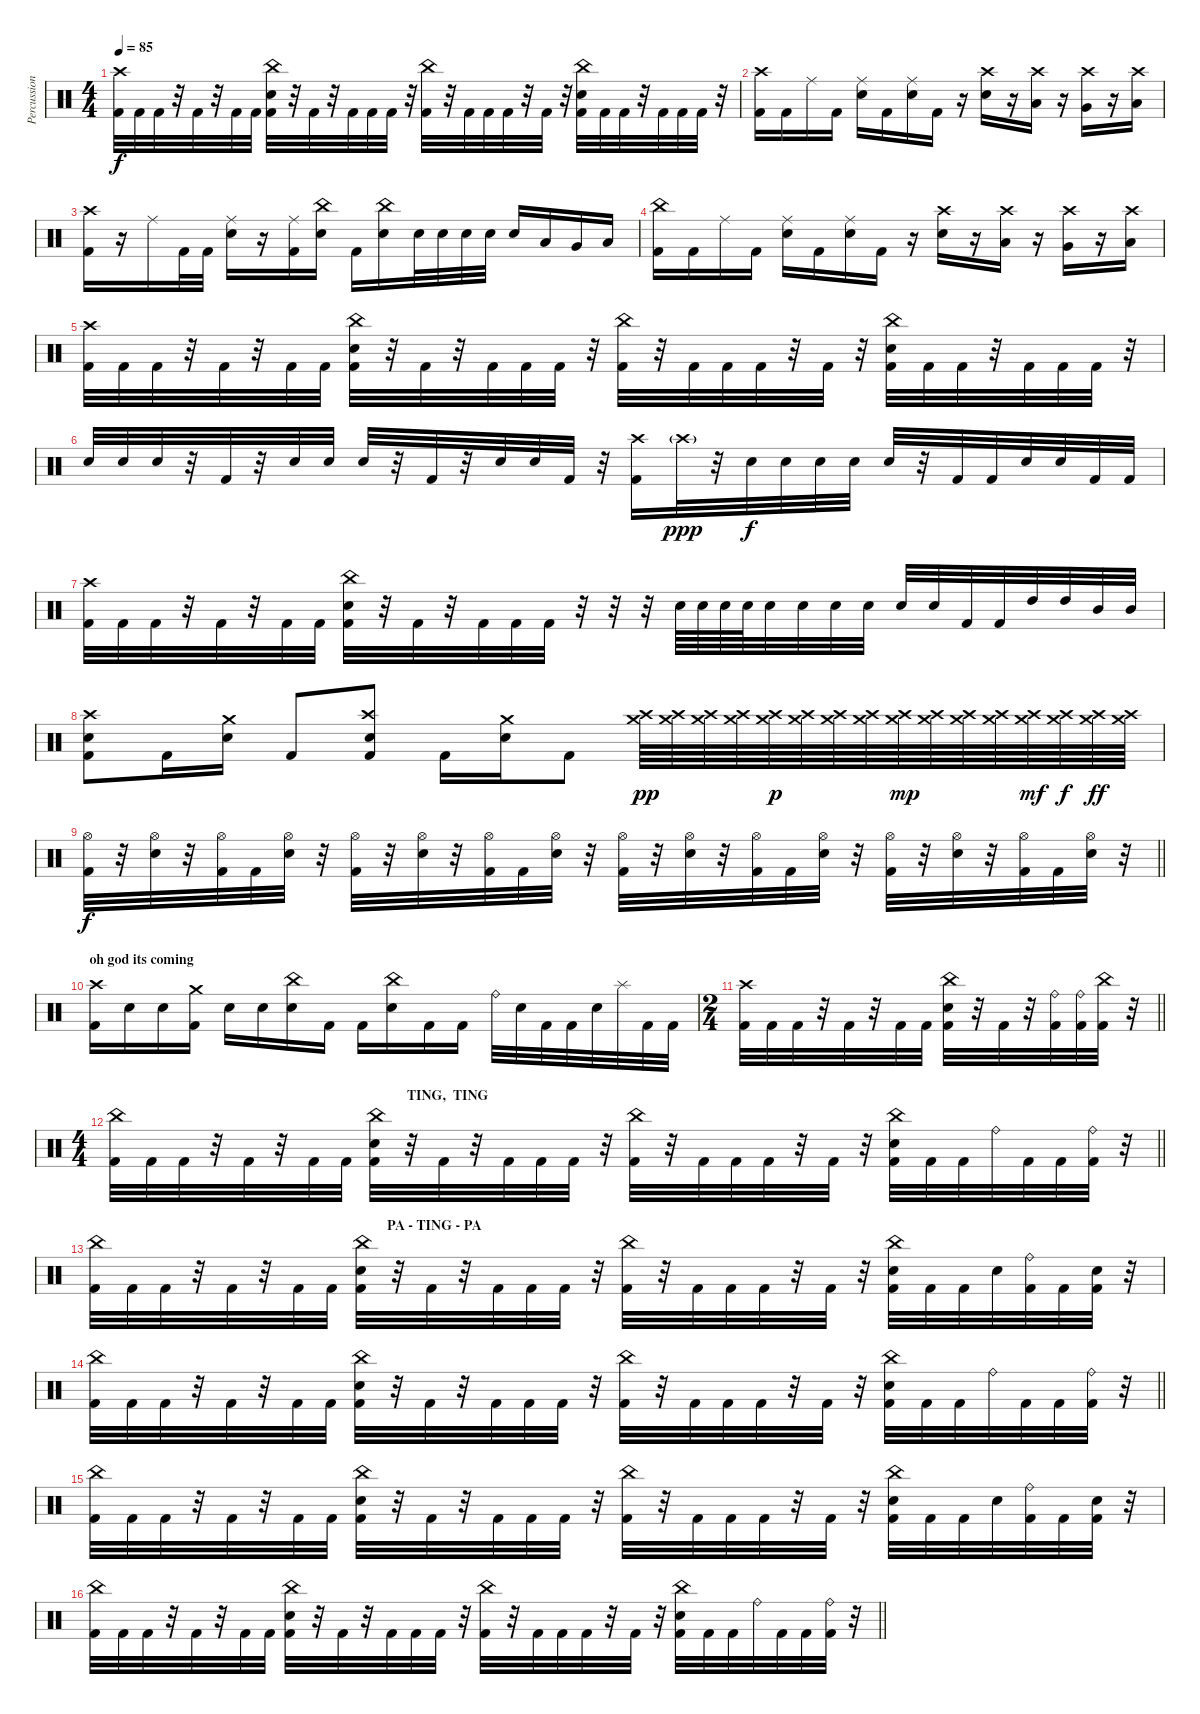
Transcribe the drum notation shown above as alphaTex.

\track ("Percussion" "Percussion") {instrument percussion}
\staff {score}
\articulation defaults
\ts (4 4)
\tempo 85
\clef neutral
\ks c
("Kick (hit) 2" "Crash high (hit)").32{dy f} "Kick (hit) 2".32 "Kick (hit) 2".32 r.32 "Kick (hit) 2".32 r.32 "Kick (hit) 2".32 "Kick (hit) 2".32 ("Kick (hit) 2" "Snare (hit) 2" "China (hit)").32 r.32 "Kick (hit) 2".32 r.32 "Kick (hit) 2".32 "Kick (hit) 2".32 "Kick (hit) 2".32 r.32 ("Kick (hit) 2" "China (hit)").32 r.32 "Kick (hit) 2".32 "Kick (hit) 2".32 "Kick (hit) 2".32 r.32 "Kick (hit) 2".32 r.32 ("Kick (hit) 2" "Snare (hit) 2" "China (hit)").32 "Kick (hit) 2".32 "Kick (hit) 2".32 r.32 "Kick (hit) 2".32 "Kick (hit) 2".32 "Kick (hit) 2".32 r.32 |
("Kick (hit) 2" "Crash high (hit)").16 "Kick (hit) 2".16 "Ride (middle)".16 "Kick (hit) 2".16 ("Snare (hit) 2" "Ride (middle)").16 "Kick (hit) 2".16 ("Snare (hit) 2" "Ride (middle)").16 "Kick (hit) 2".16 r.16 ("Crash high (hit)" "Snare (hit) 2").16 r.16 ("Crash high (hit)" "Low Tom (hit)").16 r.16 ("Crash high (hit)" "Very Low Tom (hit)").16 r.16 ("Crash high (hit)" "Low Floor Tom (hit)").16 |
("Kick (hit) 2" "Crash high (hit)").16 r.16 "Ride (middle)".16 "Kick (hit) 2".32 "Kick (hit) 2".32 ("Snare (hit) 2" "Ride (middle)").16 r.16 ("Ride (middle)" "Kick (hit) 2").16 ("China (hit)" "Snare (hit) 2").16 "Kick (hit) 2".16 ("China (hit)" "Snare (hit) 2").16 "Snare (hit) 2".32 "Snare (hit) 2".32 "Snare (hit) 2".32 "Snare (hit) 2".32 "Snare (hit) 2".16 "Low Tom (hit)".16 "Very Low Tom (hit)".16 "Low Floor Tom (hit)".16 |
("Kick (hit) 2" "China (hit)").16 "Kick (hit) 2".16 "Ride (middle)".16 "Kick (hit) 2".16 ("Snare (hit) 2" "Ride (middle)").16 "Kick (hit) 2".16 ("Snare (hit) 2" "Ride (middle)").16 "Kick (hit) 2".16 r.16 ("Crash high (hit)" "Snare (hit) 2").16 r.16 ("Crash high (hit)" "Low Tom (hit)").16 r.16 ("Crash high (hit)" "Very Low Tom (hit)").16 r.16 ("Crash high (hit)" "Low Floor Tom (hit)").16 |
("Kick (hit) 2" "Crash high (hit)").32 "Kick (hit) 2".32 "Kick (hit) 2".32 r.32 "Kick (hit) 2".32 r.32 "Kick (hit) 2".32 "Kick (hit) 2".32 ("Kick (hit) 2" "Snare (hit) 2" "China (hit)").32 r.32 "Kick (hit) 2".32 r.32 "Kick (hit) 2".32 "Kick (hit) 2".32 "Kick (hit) 2".32 r.32 ("Kick (hit) 2" "China (hit)").32 r.32 "Kick (hit) 2".32 "Kick (hit) 2".32 "Kick (hit) 2".32 r.32 "Kick (hit) 2".32 r.32 ("Kick (hit) 2" "Snare (hit) 2" "China (hit)").32 "Kick (hit) 2".32 "Kick (hit) 2".32 r.32 "Kick (hit) 2".32 "Kick (hit) 2".32 "Kick (hit) 2".32 r.32 |
"Snare (hit) 2".32 "Snare (hit) 2".32 "Snare (hit) 2".32 r.32 "Kick (hit) 2".32 r.32 "Snare (hit) 2".32 "Snare (hit) 2".32 "Snare (hit) 2".32 r.32 "Kick (hit) 2".32 r.32 "Snare (hit) 2".32 "Snare (hit) 2".32 "Kick (hit) 2".32 r.32 ("Crash high (hit)" "Kick (hit) 2").16 "Crash high (hit)"{g}.32{dy ppp} r.32 "Snare (hit) 2".32{dy f} "Snare (hit) 2".32 "Snare (hit) 2".32 "Snare (hit) 2".32 "Snare (hit) 2".32 r.32 "Kick (hit) 2".32 "Kick (hit) 2".32 "Snare (hit) 2".32 "Snare (hit) 2".32 "Kick (hit) 2".32 "Kick (hit) 2".32 |
("Kick (hit) 2" "Crash high (hit)").32 "Kick (hit) 2".32 "Kick (hit) 2".32 r.32 "Kick (hit) 2".32 r.32 "Kick (hit) 2".32 "Kick (hit) 2".32 ("Kick (hit) 2" "Snare (hit) 2" "China (hit)").32 r.32 "Kick (hit) 2".32 r.32 "Kick (hit) 2".32 "Kick (hit) 2".32 "Kick (hit) 2".32 r.32 r.32 r.32 "Snare (hit) 2".64 "Snare (hit) 2".64 "Snare (hit) 2".64 "Snare (hit) 2".64 "Snare (hit) 2".32 "Snare (hit) 2".32 "Snare (hit) 2".32 "Snare (hit) 2".32 "Snare (hit) 2".32 "Snare (hit) 2".32 "Kick (hit) 2".32 "Kick (hit) 2".32 "High Tom (hit)".32 "High Tom (hit)".32 "Mid Tom (hit)".32 "Mid Tom (hit)".32 |
("Kick (hit) 2" "Crash high (hit)" "Snare (hit) 2").8 "Kick (hit) 2".16 ("Crash medium (hit)" "Snare (hit) 2").16 "Kick (hit) 2".8 ("Kick (hit) 2" "Crash high (hit)" "Snare (hit) 2").8 "Kick (hit) 2".16 ("Crash medium (hit)" "Snare (hit) 2").16 "Kick (hit) 2".8 ("Crash high (hit)" "Crash medium (hit)").64{dy pp} ("Crash high (hit)" "Crash medium (hit)").64 ("Crash high (hit)" "Crash medium (hit)").64 ("Crash high (hit)" "Crash medium (hit)").64 ("Crash high (hit)" "Crash medium (hit)").64{dy p} ("Crash high (hit)" "Crash medium (hit)").64 ("Crash high (hit)" "Crash medium (hit)").64 ("Crash high (hit)" "Crash medium (hit)").64 ("Crash high (hit)" "Crash medium (hit)").64{dy mp} ("Crash high (hit)" "Crash medium (hit)").64 ("Crash high (hit)" "Crash medium (hit)").64 ("Crash high (hit)" "Crash medium (hit)").64 ("Crash high (hit)" "Crash medium (hit)").64{dy mf} ("Crash high (hit)" "Crash medium (hit)").64{dy f} ("Crash high (hit)" "Crash medium (hit)").64{dy ff} ("Crash high (hit)" "Crash medium (hit)").64 |
\barLineRight lightlight
("Hi-Hat (open)" "Kick (hit) 2").32{dy f} r.32 ("Hi-Hat (open)" "Snare (hit) 2").32 r.32 ("Hi-Hat (open)" "Kick (hit) 2").32 "Kick (hit) 2".32 ("Hi-Hat (open)" "Snare (hit) 2").32 r.32 ("Hi-Hat (open)" "Kick (hit) 2").32 r.32 ("Hi-Hat (open)" "Snare (hit) 2").32 r.32 ("Hi-Hat (open)" "Kick (hit) 2").32 "Kick (hit) 2".32 ("Hi-Hat (open)" "Snare (hit) 2").32 r.32 ("Hi-Hat (open)" "Kick (hit) 2").32 r.32 ("Hi-Hat (open)" "Snare (hit) 2").32 r.32 ("Hi-Hat (open)" "Kick (hit) 2").32 "Kick (hit) 2".32 ("Hi-Hat (open)" "Snare (hit) 2").32 r.32 ("Hi-Hat (open)" "Kick (hit) 2").32 r.32 ("Hi-Hat (open)" "Snare (hit) 2").32 r.32 ("Hi-Hat (open)" "Kick (hit) 2").32 "Kick (hit) 2".32 ("Hi-Hat (open)" "Snare (hit) 2").32 r.32 |
\section ("" "oh god its coming")
("Crash high (hit)" "Kick (hit) 2").16 "Snare (hit) 2".16 "Snare (hit) 2".16 ("Crash medium (hit)" "Kick (hit) 2").16 "Snare (hit) 2".16 "Snare (hit) 2".16 ("China (hit)" "Snare (hit) 2").16 "Kick (hit) 2".16 "Kick (hit) 2".16 ("China (hit)" "Snare (hit) 2").16 "Kick (hit) 2".16 "Kick (hit) 2".16 "Ride (bell)".32 "Snare (hit) 2".32 "Kick (hit) 2".32 "Kick (hit) 2".32 "Snare (hit) 2".32 "Splash (hit)".32 "Kick (hit) 2".32 "Kick (hit) 2".32 |
\ts (2 4)
\barLineRight lightlight
("Kick (hit) 2" "Crash high (hit)").32 "Kick (hit) 2".32 "Kick (hit) 2".32 r.32 "Kick (hit) 2".32 r.32 "Kick (hit) 2".32 "Kick (hit) 2".32 ("Kick (hit) 2" "Snare (hit) 2" "China (hit)").32 r.32 "Kick (hit) 2".32 r.32 ("Kick (hit) 2" "Ride (bell)").32 ("Kick (hit) 2" "Ride (bell)").32 ("Kick (hit) 2" "China (hit)").32 r.32 |
\ts (4 4)
\section ("" "                                                                                     TING,  TING")
\barLineRight lightlight
("Kick (hit) 2" "China (hit)").32 "Kick (hit) 2".32 "Kick (hit) 2".32 r.32 "Kick (hit) 2".32 r.32 "Kick (hit) 2".32 "Kick (hit) 2".32 ("Kick (hit) 2" "Snare (hit) 2" "China (hit)").32 r.32 "Kick (hit) 2".32 r.32 "Kick (hit) 2".32 "Kick (hit) 2".32 "Kick (hit) 2".32 r.32 ("Kick (hit) 2" "China (hit)").32 r.32 "Kick (hit) 2".32 "Kick (hit) 2".32 "Kick (hit) 2".32 r.32 "Kick (hit) 2".32 r.32 ("Kick (hit) 2" "Snare (hit) 2" "China (hit)").32 "Kick (hit) 2".32 "Kick (hit) 2".32 "Ride (bell)".32 "Kick (hit) 2".32 "Kick (hit) 2".32 ("Kick (hit) 2" "Ride (bell)").32 r.32 |
\section ("" "                                                                                     PA - TING - PA")
("Kick (hit) 2" "China (hit)").32 "Kick (hit) 2".32 "Kick (hit) 2".32 r.32 "Kick (hit) 2".32 r.32 "Kick (hit) 2".32 "Kick (hit) 2".32 ("Kick (hit) 2" "Snare (hit) 2" "China (hit)").32 r.32 "Kick (hit) 2".32 r.32 "Kick (hit) 2".32 "Kick (hit) 2".32 "Kick (hit) 2".32 r.32 ("Kick (hit) 2" "China (hit)").32 r.32 "Kick (hit) 2".32 "Kick (hit) 2".32 "Kick (hit) 2".32 r.32 "Kick (hit) 2".32 r.32 ("Kick (hit) 2" "Snare (hit) 2" "China (hit)").32 "Kick (hit) 2".32 "Kick (hit) 2".32 "Snare (hit) 2".32 ("Kick (hit) 2" "Ride (bell)").32 "Kick (hit) 2".32 ("Kick (hit) 2" "Snare (hit) 2").32 r.32 |
\barLineRight lightlight
("Kick (hit) 2" "China (hit)").32 "Kick (hit) 2".32 "Kick (hit) 2".32 r.32 "Kick (hit) 2".32 r.32 "Kick (hit) 2".32 "Kick (hit) 2".32 ("Kick (hit) 2" "Snare (hit) 2" "China (hit)").32 r.32 "Kick (hit) 2".32 r.32 "Kick (hit) 2".32 "Kick (hit) 2".32 "Kick (hit) 2".32 r.32 ("Kick (hit) 2" "China (hit)").32 r.32 "Kick (hit) 2".32 "Kick (hit) 2".32 "Kick (hit) 2".32 r.32 "Kick (hit) 2".32 r.32 ("Kick (hit) 2" "Snare (hit) 2" "China (hit)").32 "Kick (hit) 2".32 "Kick (hit) 2".32 "Ride (bell)".32 "Kick (hit) 2".32 "Kick (hit) 2".32 ("Kick (hit) 2" "Ride (bell)").32 r.32 |
("Kick (hit) 2" "China (hit)").32 "Kick (hit) 2".32 "Kick (hit) 2".32 r.32 "Kick (hit) 2".32 r.32 "Kick (hit) 2".32 "Kick (hit) 2".32 ("Kick (hit) 2" "Snare (hit) 2" "China (hit)").32 r.32 "Kick (hit) 2".32 r.32 "Kick (hit) 2".32 "Kick (hit) 2".32 "Kick (hit) 2".32 r.32 ("Kick (hit) 2" "China (hit)").32 r.32 "Kick (hit) 2".32 "Kick (hit) 2".32 "Kick (hit) 2".32 r.32 "Kick (hit) 2".32 r.32 ("Kick (hit) 2" "Snare (hit) 2" "China (hit)").32 "Kick (hit) 2".32 "Kick (hit) 2".32 "Snare (hit) 2".32 ("Kick (hit) 2" "Ride (bell)").32 "Kick (hit) 2".32 ("Kick (hit) 2" "Snare (hit) 2").32 r.32 |
\barLineRight lightlight
("Kick (hit) 2" "China (hit)").32 "Kick (hit) 2".32 "Kick (hit) 2".32 r.32 "Kick (hit) 2".32 r.32 "Kick (hit) 2".32 "Kick (hit) 2".32 ("Kick (hit) 2" "Snare (hit) 2" "China (hit)").32 r.32 "Kick (hit) 2".32 r.32 "Kick (hit) 2".32 "Kick (hit) 2".32 "Kick (hit) 2".32 r.32 ("Kick (hit) 2" "China (hit)").32 r.32 "Kick (hit) 2".32 "Kick (hit) 2".32 "Kick (hit) 2".32 r.32 "Kick (hit) 2".32 r.32 ("Kick (hit) 2" "Snare (hit) 2" "China (hit)").32 "Kick (hit) 2".32 "Kick (hit) 2".32 "Ride (bell)".32 "Kick (hit) 2".32 "Kick (hit) 2".32 ("Kick (hit) 2" "Ride (bell)").32 r.32
